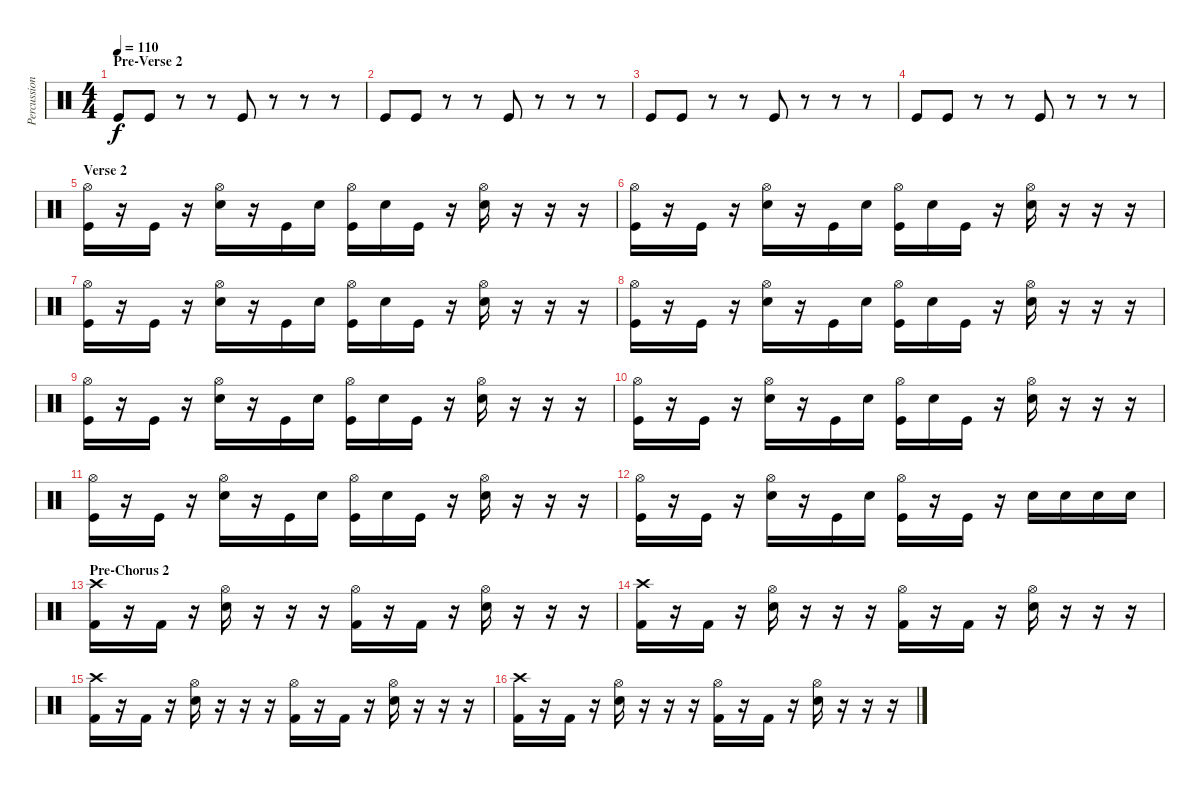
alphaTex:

\track ("Percussion" "Percussion") {instrument percussion}
\staff {score}
\articulation defaults
\ts (4 4)
\section ("" "Pre-Verse 2")
\tempo 110
\clef neutral
\ks c "Kick (hit)".8{dy f} "Kick (hit)".8
r.8 r.8 "Kick (hit)".8 r.8 r.8 r.8 |
"Kick (hit)".8 "Kick (hit)".8 r.8 r.8 "Kick (hit)".8 r.8 r.8 r.8 |
"Kick (hit)".8 "Kick (hit)".8 r.8 r.8 "Kick (hit)".8 r.8 r.8 r.8 |
"Kick (hit)".8 "Kick (hit)".8 r.8 r.8 "Kick (hit)".8 r.8 r.8 r.8 |
\section ("" "Verse 2")
("Kick (hit)" "Hi-Hat (open)").16 r.16 "Kick (hit)".16 r.16 ("Electric Snare (hit)" "Hi-Hat (open)").16 r.16 "Kick (hit)".16 "Electric Snare (hit)".16 ("Kick (hit)" "Hi-Hat (open)").16 "Electric Snare (hit)".16 "Kick (hit)".16 r.16 ("Electric Snare (hit)" "Hi-Hat (open)").16 r.16 r.16 r.16 |
("Kick (hit)" "Hi-Hat (open)").16 r.16 "Kick (hit)".16 r.16 ("Electric Snare (hit)" "Hi-Hat (open)").16 r.16 "Kick (hit)".16 "Electric Snare (hit)".16 ("Kick (hit)" "Hi-Hat (open)").16 "Electric Snare (hit)".16 "Kick (hit)".16 r.16 ("Electric Snare (hit)" "Hi-Hat (open)").16 r.16 r.16 r.16 |
("Kick (hit)" "Hi-Hat (open)").16 r.16 "Kick (hit)".16 r.16 ("Electric Snare (hit)" "Hi-Hat (open)").16 r.16 "Kick (hit)".16 "Electric Snare (hit)".16 ("Kick (hit)" "Hi-Hat (open)").16 "Electric Snare (hit)".16 "Kick (hit)".16 r.16 ("Electric Snare (hit)" "Hi-Hat (open)").16 r.16 r.16 r.16 |
("Kick (hit)" "Hi-Hat (open)").16 r.16 "Kick (hit)".16 r.16 ("Electric Snare (hit)" "Hi-Hat (open)").16 r.16 "Kick (hit)".16 "Electric Snare (hit)".16 ("Kick (hit)" "Hi-Hat (open)").16 "Electric Snare (hit)".16 "Kick (hit)".16 r.16 ("Electric Snare (hit)" "Hi-Hat (open)").16 r.16 r.16 r.16 |
("Kick (hit)" "Hi-Hat (open)").16 r.16 "Kick (hit)".16 r.16 ("Electric Snare (hit)" "Hi-Hat (open)").16 r.16 "Kick (hit)".16 "Electric Snare (hit)".16 ("Kick (hit)" "Hi-Hat (open)").16 "Electric Snare (hit)".16 "Kick (hit)".16 r.16 ("Electric Snare (hit)" "Hi-Hat (open)").16 r.16 r.16 r.16 |
("Kick (hit)" "Hi-Hat (open)").16 r.16 "Kick (hit)".16 r.16 ("Electric Snare (hit)" "Hi-Hat (open)").16 r.16 "Kick (hit)".16 "Electric Snare (hit)".16 ("Kick (hit)" "Hi-Hat (open)").16 "Electric Snare (hit)".16 "Kick (hit)".16 r.16 ("Electric Snare (hit)" "Hi-Hat (open)").16 r.16 r.16 r.16 |
("Kick (hit)" "Hi-Hat (open)").16 r.16 "Kick (hit)".16 r.16 ("Electric Snare (hit)" "Hi-Hat (open)").16 r.16 "Kick (hit)".16 "Electric Snare (hit)".16 ("Kick (hit)" "Hi-Hat (open)").16 "Electric Snare (hit)".16 "Kick (hit)".16 r.16 ("Electric Snare (hit)" "Hi-Hat (open)").16 r.16 r.16 r.16 |
("Kick (hit)" "Hi-Hat (open)").16 r.16 "Kick (hit)".16 r.16 ("Electric Snare (hit)" "Hi-Hat (open)").16 r.16 "Kick (hit)".16 "Electric Snare (hit)".16 ("Kick (hit)" "Hi-Hat (open)").16 r.16 "Kick (hit)".16 r.16 "Snare (hit) 2".16 "Snare (hit) 2".16 "Snare (hit) 2".16 "Snare (hit) 2".16 |
\section ("" "Pre-Chorus 2")
("Kick (hit) 2" "Crash high (hit)").16 r.16 "Kick (hit) 2".16 r.16 ("Snare (hit) 2" "Hi-Hat (open)").16 r.16 r.16 r.16 ("Kick (hit) 2" "Hi-Hat (open)").16 r.16 "Kick (hit) 2".16 r.16 ("Snare (hit) 2" "Hi-Hat (open)").16 r.16 r.16 r.16 |
("Kick (hit) 2" "Crash high (hit)").16 r.16 "Kick (hit) 2".16 r.16 ("Snare (hit) 2" "Hi-Hat (open)").16 r.16 r.16 r.16 ("Kick (hit) 2" "Hi-Hat (open)").16 r.16 "Kick (hit) 2".16 r.16 ("Snare (hit) 2" "Hi-Hat (open)").16 r.16 r.16 r.16 |
("Kick (hit) 2" "Crash high (hit)").16 r.16 "Kick (hit) 2".16 r.16 ("Snare (hit) 2" "Hi-Hat (open)").16 r.16 r.16 r.16 ("Kick (hit) 2" "Hi-Hat (open)").16 r.16 "Kick (hit) 2".16 r.16 ("Snare (hit) 2" "Hi-Hat (open)").16 r.16 r.16 r.16 |
("Kick (hit) 2" "Crash high (hit)").16 r.16 "Kick (hit) 2".16 r.16 ("Snare (hit) 2" "Hi-Hat (open)").16 r.16 r.16 r.16 ("Kick (hit) 2" "Hi-Hat (open)").16 r.16 "Kick (hit) 2".16 r.16 ("Snare (hit) 2" "Hi-Hat (open)").16 r.16 r.16 r.16
